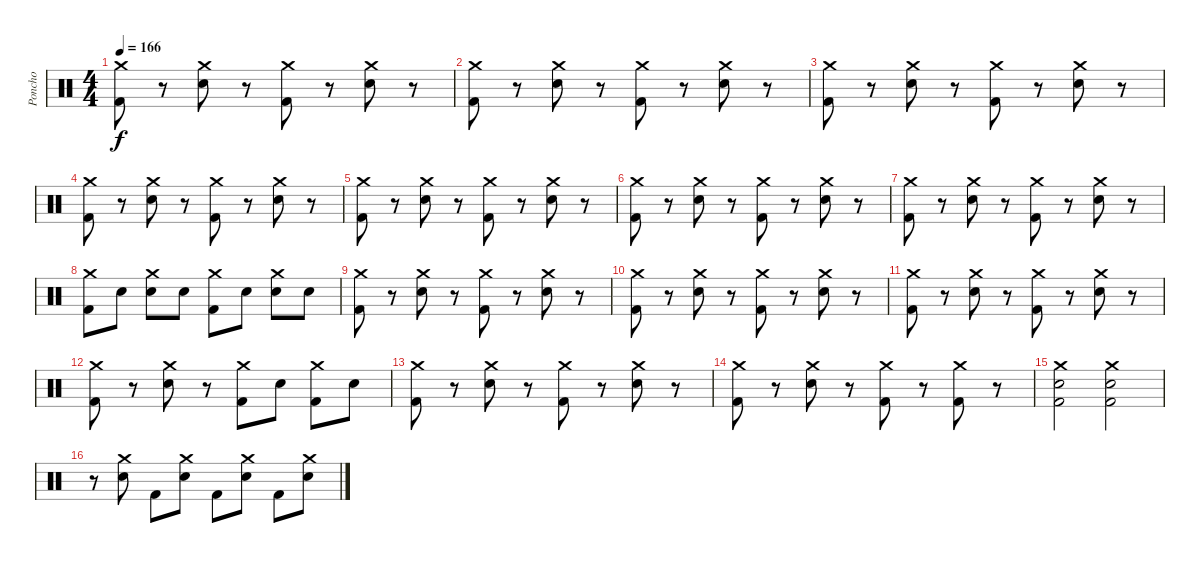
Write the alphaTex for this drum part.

\track ("Poncho" "Poncho") {instrument percussion}
\staff {score}
\articulation defaults
\ts (4 4)
\tempo 166
\clef neutral
\ks c
("Crash medium (hit)" "Kick (hit) 2").8{dy f} r.8 ("Crash medium (hit)" "Electric Snare (hit)").8 r.8 ("Crash medium (hit)" "Kick (hit) 2").8 r.8 ("Crash medium (hit)" "Electric Snare (hit)").8 r.8 |
("Crash medium (hit)" "Kick (hit) 2").8 r.8 ("Crash medium (hit)" "Electric Snare (hit)").8 r.8 ("Crash medium (hit)" "Kick (hit) 2").8 r.8 ("Crash medium (hit)" "Electric Snare (hit)").8 r.8 |
("Crash medium (hit)" "Kick (hit) 2").8 r.8 ("Crash medium (hit)" "Electric Snare (hit)").8 r.8 ("Crash medium (hit)" "Kick (hit) 2").8 r.8 ("Crash medium (hit)" "Electric Snare (hit)").8 r.8 |
("Crash medium (hit)" "Kick (hit) 2").8 r.8 ("Crash medium (hit)" "Electric Snare (hit)").8 r.8 ("Crash medium (hit)" "Kick (hit) 2").8 r.8 ("Crash medium (hit)" "Electric Snare (hit)").8 r.8 |
("Crash medium (hit)" "Kick (hit) 2").8 r.8 ("Crash medium (hit)" "Electric Snare (hit)").8 r.8 ("Crash medium (hit)" "Kick (hit) 2").8 r.8 ("Crash medium (hit)" "Electric Snare (hit)").8 r.8 |
("Crash medium (hit)" "Kick (hit) 2").8 r.8 ("Crash medium (hit)" "Electric Snare (hit)").8 r.8 ("Crash medium (hit)" "Kick (hit) 2").8 r.8 ("Crash medium (hit)" "Electric Snare (hit)").8 r.8 |
("Crash medium (hit)" "Kick (hit) 2").8 r.8 ("Crash medium (hit)" "Electric Snare (hit)").8 r.8 ("Crash medium (hit)" "Kick (hit) 2").8 r.8 ("Crash medium (hit)" "Electric Snare (hit)").8 r.8 |
("Crash medium (hit)" "Kick (hit) 2").8 "Electric Snare (hit)".8 ("Crash medium (hit)" "Electric Snare (hit)").8 "Electric Snare (hit)".8 ("Crash medium (hit)" "Kick (hit) 2").8 "Electric Snare (hit)".8 ("Crash medium (hit)" "Electric Snare (hit)").8 "Electric Snare (hit)".8 |
("Crash medium (hit)" "Kick (hit) 2").8 r.8 ("Crash medium (hit)" "Electric Snare (hit)").8 r.8 ("Crash medium (hit)" "Kick (hit) 2").8 r.8 ("Crash medium (hit)" "Electric Snare (hit)").8 r.8 |
("Crash medium (hit)" "Kick (hit) 2").8 r.8 ("Crash medium (hit)" "Electric Snare (hit)").8 r.8 ("Crash medium (hit)" "Kick (hit) 2").8 r.8 ("Crash medium (hit)" "Electric Snare (hit)").8 r.8 |
("Crash medium (hit)" "Kick (hit) 2").8 r.8 ("Crash medium (hit)" "Electric Snare (hit)").8 r.8 ("Crash medium (hit)" "Kick (hit) 2").8 r.8 ("Crash medium (hit)" "Electric Snare (hit)").8 r.8 |
("Crash medium (hit)" "Kick (hit) 2").8 r.8 ("Crash medium (hit)" "Electric Snare (hit)").8 r.8 ("Crash medium (hit)" "Kick (hit) 2").8 "Electric Snare (hit)".8 ("Crash medium (hit)" "Kick (hit) 2").8 "Electric Snare (hit)".8 |
("Crash medium (hit)" "Kick (hit) 2").8 r.8 ("Crash medium (hit)" "Electric Snare (hit)").8 r.8 ("Crash medium (hit)" "Kick (hit) 2").8 r.8 ("Crash medium (hit)" "Electric Snare (hit)").8 r.8 |
("Crash medium (hit)" "Kick (hit) 2").8 r.8 ("Crash medium (hit)" "Electric Snare (hit)").8 r.8 ("Crash medium (hit)" "Kick (hit) 2").8 r.8 ("Crash medium (hit)" "Kick (hit) 2").8 r.8 |
("Crash medium (hit)" "Electric Snare (hit)" "Kick (hit) 2").2 ("Crash medium (hit)" "Electric Snare (hit)" "Kick (hit) 2").2 |
r.8 ("Crash medium (hit)" "Electric Snare (hit)").8 "Kick (hit) 2".8 ("Crash medium (hit)" "Electric Snare (hit)").8 "Kick (hit) 2".8 ("Crash medium (hit)" "Electric Snare (hit)").8 "Kick (hit) 2".8 ("Crash medium (hit)" "Electric Snare (hit)").8
